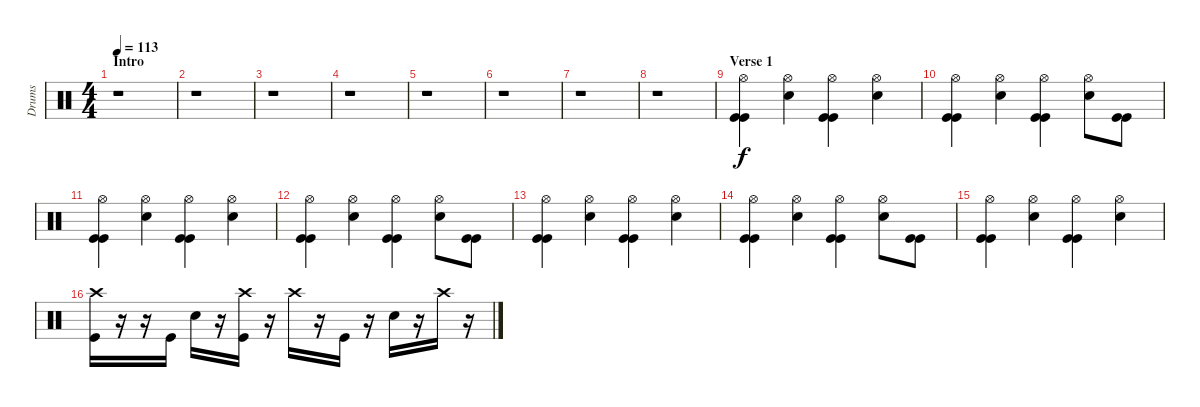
\track ("Drums" "Drums") {instrument percussion}
\staff {score}
\articulation defaults
\ts (4 4)
\section ("" "Intro")
\tempo 113
\clef neutral
\ks c
r.1{dy f} |
r.1 |
r.1 |
r.1 |
r.1 |
r.1 |
r.1 |
r.1 |
\section ("" "Verse 1")
("Hi-Hat (open)" "Kick (hit)" "Kick (hit)").4 ("Hi-Hat (open)" "Snare (hit) 2").4 ("Hi-Hat (open)" "Kick (hit)" "Kick (hit)").4 ("Hi-Hat (open)" "Snare (hit) 2").4 |
("Hi-Hat (open)" "Kick (hit)" "Kick (hit)").4 ("Hi-Hat (open)" "Snare (hit) 2").4 ("Hi-Hat (open)" "Kick (hit)" "Kick (hit)").4 ("Hi-Hat (open)" "Snare (hit) 2").8 ("Kick (hit)" "Kick (hit)").8 |
("Hi-Hat (open)" "Kick (hit)" "Kick (hit)").4 ("Hi-Hat (open)" "Snare (hit) 2").4 ("Hi-Hat (open)" "Kick (hit)" "Kick (hit)").4 ("Hi-Hat (open)" "Snare (hit) 2").4 |
("Hi-Hat (open)" "Kick (hit)" "Kick (hit)").4 ("Hi-Hat (open)" "Snare (hit) 2").4 ("Hi-Hat (open)" "Kick (hit)" "Kick (hit)").4 ("Hi-Hat (open)" "Snare (hit) 2").8 ("Kick (hit)" "Kick (hit)").8 |
("Hi-Hat (open)" "Kick (hit)" "Kick (hit)").4 ("Hi-Hat (open)" "Snare (hit) 2").4 ("Hi-Hat (open)" "Kick (hit)" "Kick (hit)").4 ("Hi-Hat (open)" "Snare (hit) 2").4 |
("Hi-Hat (open)" "Kick (hit)" "Kick (hit)").4 ("Hi-Hat (open)" "Snare (hit) 2").4 ("Hi-Hat (open)" "Kick (hit)" "Kick (hit)").4 ("Hi-Hat (open)" "Snare (hit) 2").8 ("Kick (hit)" "Kick (hit)").8 |
("Hi-Hat (open)" "Kick (hit)" "Kick (hit)").4 ("Hi-Hat (open)" "Snare (hit) 2").4 ("Hi-Hat (open)" "Kick (hit)" "Kick (hit)").4 ("Hi-Hat (open)" "Snare (hit) 2").4 |
("Crash high (hit)" "Kick (hit)").16 r.16 r.16 "Kick (hit)".16 "Snare (hit) 2".16 r.16 ("Crash high (hit)" "Kick (hit)").16 r.16 "Crash high (hit)".16 r.16 "Kick (hit)".16 r.16 "Snare (hit) 2".16 r.16 "Crash high (hit)".16 r.16
